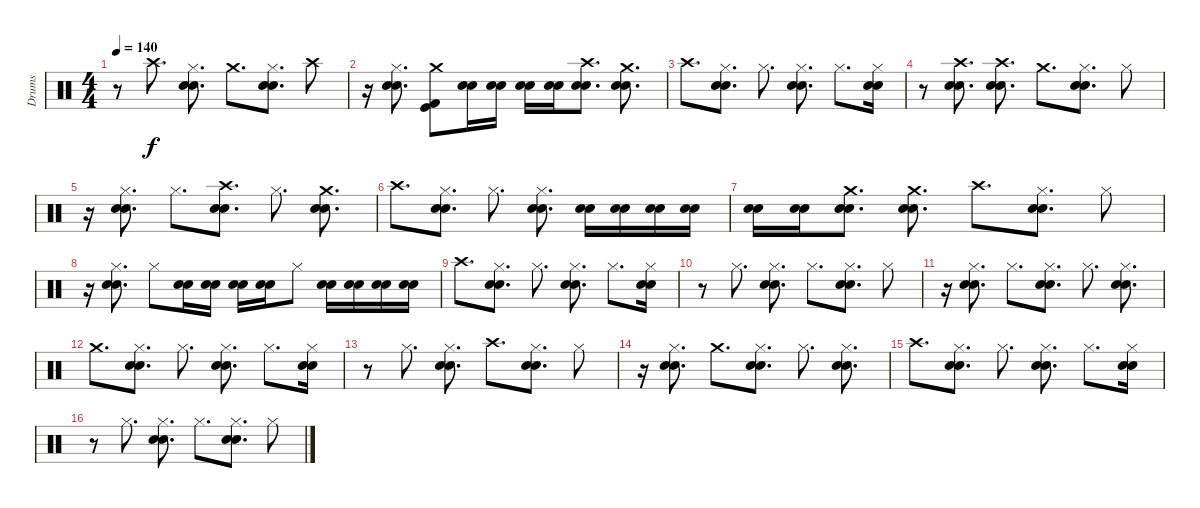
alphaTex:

\track ("Drums" "Drums") {instrument percussion}
\staff {score}
\articulation defaults
\ts (4 4)
\tempo 140
\clef neutral
\ks c
r.8{dy f} "Crash high (hit)".8{d} ("Hi-Hat (closed)" "Electric Snare (hit)" "Snare (hit) 2").8{d} "Crash medium (hit)".8{d} ("Hi-Hat (closed)" "Electric Snare (hit)" "Snare (hit) 2").8{d} "Crash high (hit)".8 |
r.16 ("Hi-Hat (closed)" "Electric Snare (hit)" "Snare (hit) 2").8{d} ("Crash medium (hit)" "Kick (hit) 2" "Kick (hit)").8 ("Electric Snare (hit)" "Snare (hit) 2").16 ("Electric Snare (hit)" "Snare (hit) 2").16 ("Electric Snare (hit)" "Snare (hit) 2").16 ("Electric Snare (hit)" "Snare (hit) 2").16 ("Electric Snare (hit)" "Snare (hit) 2" "Crash high (hit)").8{d} ("Electric Snare (hit)" "Snare (hit) 2" "Crash medium (hit)").8{d} |
"Crash high (hit)".8{d} ("Hi-Hat (closed)" "Electric Snare (hit)" "Snare (hit) 2").8{d} "Hi-Hat (closed)".8{d} ("Hi-Hat (closed)" "Electric Snare (hit)" "Snare (hit) 2").8{d} "Hi-Hat (closed)".8{d} ("Hi-Hat (closed)" "Electric Snare (hit)" "Snare (hit) 2").16 |
r.8 ("Crash high (hit)" "Electric Snare (hit)" "Snare (hit) 2").8{d} ("Crash high (hit)" "Electric Snare (hit)" "Snare (hit) 2").8{d} "Crash medium (hit)".8{d} ("Hi-Hat (closed)" "Electric Snare (hit)" "Snare (hit) 2").8{d} "Hi-Hat (closed)".8 |
r.16 ("Hi-Hat (closed)" "Electric Snare (hit)" "Snare (hit) 2").8{d} "Hi-Hat (closed)".8{d} ("Crash high (hit)" "Electric Snare (hit)" "Snare (hit) 2").8{d} "Hi-Hat (closed)".8{d} ("Crash medium (hit)" "Electric Snare (hit)" "Snare (hit) 2").8{d} |
"Crash high (hit)".8{d} ("Hi-Hat (closed)" "Electric Snare (hit)" "Snare (hit) 2").8{d} "Hi-Hat (closed)".8{d} ("Hi-Hat (closed)" "Electric Snare (hit)" "Snare (hit) 2").8{d} ("Electric Snare (hit)" "Snare (hit) 2").16 ("Electric Snare (hit)" "Snare (hit) 2").16 ("Electric Snare (hit)" "Snare (hit) 2").16 ("Electric Snare (hit)" "Snare (hit) 2").16 |
("Electric Snare (hit)" "Snare (hit) 2").16 ("Electric Snare (hit)" "Snare (hit) 2").16 ("Crash medium (hit)" "Electric Snare (hit)" "Snare (hit) 2").8{d} ("Crash medium (hit)" "Electric Snare (hit)" "Snare (hit) 2").8{d} "Crash high (hit)".8{d} ("Hi-Hat (closed)" "Electric Snare (hit)" "Snare (hit) 2").8{d} "Hi-Hat (closed)".8 |
r.16 ("Hi-Hat (closed)" "Electric Snare (hit)" "Snare (hit) 2").8{d} "Hi-Hat (closed)".8 ("Electric Snare (hit)" "Snare (hit) 2").16 ("Electric Snare (hit)" "Snare (hit) 2").16 ("Electric Snare (hit)" "Snare (hit) 2").16 ("Electric Snare (hit)" "Snare (hit) 2").16 "Hi-Hat (closed)".8 ("Electric Snare (hit)" "Snare (hit) 2").16 ("Electric Snare (hit)" "Snare (hit) 2").16 ("Electric Snare (hit)" "Snare (hit) 2").16 ("Electric Snare (hit)" "Snare (hit) 2").16 |
"Crash high (hit)".8{d} ("Hi-Hat (closed)" "Electric Snare (hit)" "Snare (hit) 2").8{d} "Hi-Hat (closed)".8{d} ("Hi-Hat (closed)" "Electric Snare (hit)" "Snare (hit) 2").8{d} "Hi-Hat (closed)".8{d} ("Hi-Hat (closed)" "Electric Snare (hit)" "Snare (hit) 2").16 |
r.8 "Hi-Hat (closed)".8{d} ("Hi-Hat (closed)" "Electric Snare (hit)" "Snare (hit) 2").8{d} "Hi-Hat (closed)".8{d} ("Hi-Hat (closed)" "Electric Snare (hit)" "Snare (hit) 2").8{d} "Hi-Hat (closed)".8 |
r.16 ("Hi-Hat (closed)" "Electric Snare (hit)" "Snare (hit) 2").8{d} "Hi-Hat (closed)".8{d} ("Hi-Hat (closed)" "Electric Snare (hit)" "Snare (hit) 2").8{d} "Hi-Hat (closed)".8{d} ("Hi-Hat (closed)" "Electric Snare (hit)" "Snare (hit) 2").8{d} |
"Crash medium (hit)".8{d} ("Hi-Hat (closed)" "Electric Snare (hit)" "Snare (hit) 2").8{d} "Hi-Hat (closed)".8{d} ("Hi-Hat (closed)" "Electric Snare (hit)" "Snare (hit) 2").8{d} "Hi-Hat (closed)".8{d} ("Hi-Hat (closed)" "Electric Snare (hit)" "Snare (hit) 2").16 |
r.8 "Hi-Hat (closed)".8{d} ("Hi-Hat (closed)" "Electric Snare (hit)" "Snare (hit) 2").8{d} "Crash high (hit)".8{d} ("Hi-Hat (closed)" "Electric Snare (hit)" "Snare (hit) 2").8{d} "Hi-Hat (closed)".8 |
r.16 ("Hi-Hat (closed)" "Electric Snare (hit)" "Snare (hit) 2").8{d} "Crash medium (hit)".8{d} ("Hi-Hat (closed)" "Electric Snare (hit)" "Snare (hit) 2").8{d} "Hi-Hat (closed)".8{d} ("Hi-Hat (closed)" "Electric Snare (hit)" "Snare (hit) 2").8{d} |
"Crash high (hit)".8{d} ("Hi-Hat (closed)" "Electric Snare (hit)" "Snare (hit) 2").8{d} "Hi-Hat (closed)".8{d} ("Hi-Hat (closed)" "Electric Snare (hit)" "Snare (hit) 2").8{d} "Hi-Hat (closed)".8{d} ("Hi-Hat (closed)" "Electric Snare (hit)" "Snare (hit) 2").16 |
r.8 "Hi-Hat (closed)".8{d} ("Hi-Hat (closed)" "Electric Snare (hit)" "Snare (hit) 2").8{d} "Hi-Hat (closed)".8{d} ("Hi-Hat (closed)" "Electric Snare (hit)" "Snare (hit) 2").8{d} "Hi-Hat (closed)".8
